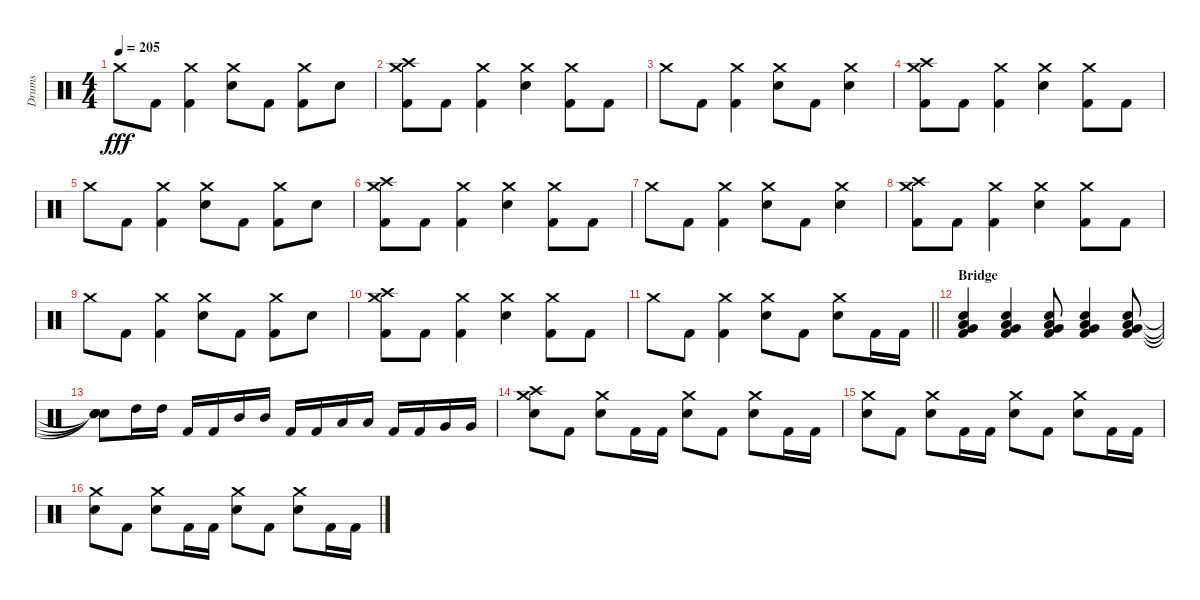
\track ("Drums" "Drums") {instrument percussion}
\staff {score}
\articulation defaults
\ts (4 4)
\tempo 205
\clef neutral
\ks c "Crash medium (hit)".8{dy fff} "Kick (hit) 2".8
("Crash medium (hit)" "Kick (hit) 2").4 ("Crash medium (hit)" "Electric Snare (hit)").8 "Kick (hit) 2".8 ("Crash medium (hit)" "Kick (hit) 2").8 "Electric Snare (hit)".8 |
("Crash medium (hit)" "Crash high (hit)" "Kick (hit) 2").8 "Kick (hit) 2".8 ("Crash medium (hit)" "Kick (hit) 2").4 ("Crash medium (hit)" "Electric Snare (hit)").4 ("Crash medium (hit)" "Kick (hit) 2").8 "Kick (hit) 2".8 |
"Crash medium (hit)".8 "Kick (hit) 2".8 ("Crash medium (hit)" "Kick (hit) 2").4 ("Crash medium (hit)" "Electric Snare (hit)").8 "Kick (hit) 2".8 ("Crash medium (hit)" "Electric Snare (hit)").4 |
("Crash medium (hit)" "Crash high (hit)" "Kick (hit) 2").8 "Kick (hit) 2".8 ("Crash medium (hit)" "Kick (hit) 2").4 ("Crash medium (hit)" "Electric Snare (hit)").4 ("Crash medium (hit)" "Kick (hit) 2").8 "Kick (hit) 2".8 |
"Crash medium (hit)".8 "Kick (hit) 2".8 ("Crash medium (hit)" "Kick (hit) 2").4 ("Crash medium (hit)" "Electric Snare (hit)").8 "Kick (hit) 2".8 ("Crash medium (hit)" "Kick (hit) 2").8 "Electric Snare (hit)".8 |
("Crash medium (hit)" "Crash high (hit)" "Kick (hit) 2").8 "Kick (hit) 2".8 ("Crash medium (hit)" "Kick (hit) 2").4 ("Crash medium (hit)" "Electric Snare (hit)").4 ("Crash medium (hit)" "Kick (hit) 2").8 "Kick (hit) 2".8 |
"Crash medium (hit)".8 "Kick (hit) 2".8 ("Crash medium (hit)" "Kick (hit) 2").4 ("Crash medium (hit)" "Electric Snare (hit)").8 "Kick (hit) 2".8 ("Crash medium (hit)" "Electric Snare (hit)").4 |
("Crash medium (hit)" "Crash high (hit)" "Kick (hit) 2").8 "Kick (hit) 2".8 ("Crash medium (hit)" "Kick (hit) 2").4 ("Crash medium (hit)" "Electric Snare (hit)").4 ("Crash medium (hit)" "Kick (hit) 2").8 "Kick (hit) 2".8 |
"Crash medium (hit)".8 "Kick (hit) 2".8 ("Crash medium (hit)" "Kick (hit) 2").4 ("Crash medium (hit)" "Electric Snare (hit)").8 "Kick (hit) 2".8 ("Crash medium (hit)" "Kick (hit) 2").8 "Electric Snare (hit)".8 |
("Crash medium (hit)" "Crash high (hit)" "Kick (hit) 2").8 "Kick (hit) 2".8 ("Crash medium (hit)" "Kick (hit) 2").4 ("Crash medium (hit)" "Electric Snare (hit)").4 ("Crash medium (hit)" "Kick (hit) 2").8 "Kick (hit) 2".8 |
\barLineRight lightlight "Crash medium (hit)".8 "Kick (hit) 2".8
("Crash medium (hit)" "Kick (hit) 2").4 ("Crash medium (hit)" "Electric Snare (hit)").8 "Kick (hit) 2".8 ("Crash medium (hit)" "Electric Snare (hit)").8 "Kick (hit) 2".16 "Kick (hit) 2".16 |
\section ("" "Bridge")
("Very Low Tom (hit)" "Low Floor Tom (hit)" "Electric Snare (hit)" "Kick (hit) 2").4 ("Very Low Tom (hit)" "Low Floor Tom (hit)" "Electric Snare (hit)" "Kick (hit) 2").4 ("Very Low Tom (hit)" "Low Floor Tom (hit)" "Electric Snare (hit)" "Kick (hit) 2").8 ("Very Low Tom (hit)" "Low Floor Tom (hit)" "Electric Snare (hit)" "Kick (hit) 2").4 ("Very Low Tom (hit)" "Low Floor Tom (hit)" "Electric Snare (hit)" "Kick (hit) 2").8 |
("Snare (hit)"{t} "Snare (hit)"{t} "Snare (hit)"{t} "Snare (hit)"{t}).8 "High Tom (hit)".16 "High Tom (hit)".16 "Kick (hit) 2".16 "Kick (hit) 2".16 "Mid Tom (hit)".16 "Mid Tom (hit)".16 "Kick (hit) 2".16 "Kick (hit) 2".16 "Low Tom (hit)".16 "Low Tom (hit)".16 "Kick (hit) 2".16 "Kick (hit) 2".16 "Very Low Tom (hit)".16 "Very Low Tom (hit)".16 |
("Crash medium (hit)" "Crash high (hit)" "Electric Snare (hit)").8 "Kick (hit) 2".8 ("Crash medium (hit)" "Electric Snare (hit)").8 "Kick (hit) 2".16 "Kick (hit) 2".16 ("Crash medium (hit)" "Electric Snare (hit)").8 "Kick (hit) 2".8 ("Crash medium (hit)" "Electric Snare (hit)").8 "Kick (hit) 2".16 "Kick (hit) 2".16 |
("Crash medium (hit)" "Electric Snare (hit)").8 "Kick (hit) 2".8 ("Crash medium (hit)" "Electric Snare (hit)").8 "Kick (hit) 2".16 "Kick (hit) 2".16 ("Crash medium (hit)" "Electric Snare (hit)").8 "Kick (hit) 2".8 ("Crash medium (hit)" "Electric Snare (hit)").8 "Kick (hit) 2".16 "Kick (hit) 2".16 |
("Crash medium (hit)" "Electric Snare (hit)").8 "Kick (hit) 2".8 ("Crash medium (hit)" "Electric Snare (hit)").8 "Kick (hit) 2".16 "Kick (hit) 2".16 ("Crash medium (hit)" "Electric Snare (hit)").8 "Kick (hit) 2".8 ("Crash medium (hit)" "Electric Snare (hit)").8 "Kick (hit) 2".16 "Kick (hit) 2".16
